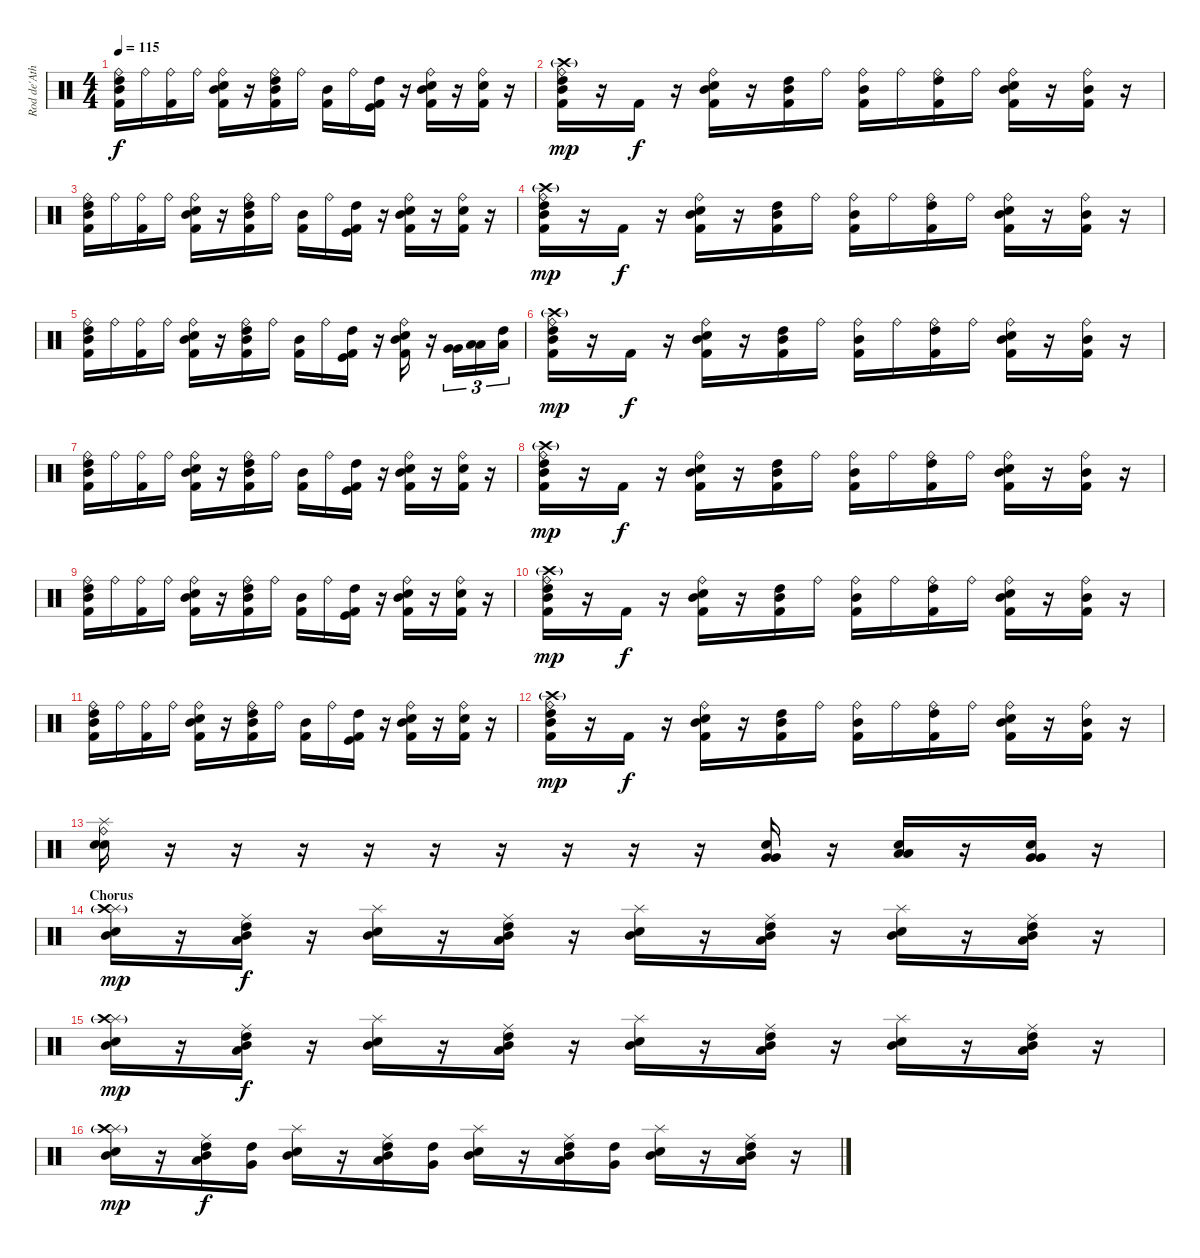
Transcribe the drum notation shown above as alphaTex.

\track ("Rod de'Ath" "Rod de'Ath") {instrument percussion}
\staff {score}
\articulation defaults
\ts (4 4)
\tempo 115
\clef neutral
\ks c
("Ride (bell)" "High Tom (hit)" "Mid Tom (hit)" "Kick (hit) 2").16{dy f} "Ride (bell)".16 ("Ride (bell)" "Kick (hit) 2").16 "Ride (bell)".16 ("Ride (bell)" "Snare (hit) 2" "Mid Tom (hit)" "Kick (hit) 2").16 r.16 ("Ride (bell)" "High Tom (hit)" "Mid Tom (hit)" "Kick (hit) 2").16 "Ride (bell)".16 ("Mid Tom (hit)" "Kick (hit) 2").16 "Ride (bell)".16 ("Kick (hit)" "High Tom (hit)" "Kick (hit) 2").16 r.16 ("Ride (bell)" "Snare (hit) 2" "Mid Tom (hit)" "Kick (hit) 2").16 r.16 ("Ride (bell)" "Electric Snare (hit)" "Kick (hit) 2").16 r.16 |
("Ride (bell)" "High Tom (hit)" "Mid Tom (hit)" "Kick (hit) 2" "Crash high (hit)"{g}).16{dy mp} r.16 "Kick (hit) 2".16{dy f} r.16 ("Ride (bell)" "Snare (hit) 2" "Mid Tom (hit)" "Kick (hit) 2").16 r.16 ("High Tom (hit)" "Mid Tom (hit)" "Kick (hit) 2").16 "Ride (bell)".16 ("Ride (bell)" "Mid Tom (hit)" "Kick (hit) 2").16 "Ride (bell)".16 ("Ride (bell)" "High Tom (hit)" "Kick (hit) 2").16 "Ride (bell)".16 ("Ride (bell)" "Snare (hit) 2" "Mid Tom (hit)" "Kick (hit) 2").16 r.16 ("Ride (bell)" "Mid Tom (hit)" "Kick (hit) 2").16 r.16 |
("Ride (bell)" "High Tom (hit)" "Mid Tom (hit)" "Kick (hit) 2").16 "Ride (bell)".16 ("Ride (bell)" "Kick (hit) 2").16 "Ride (bell)".16 ("Ride (bell)" "Snare (hit) 2" "Mid Tom (hit)" "Kick (hit) 2").16 r.16 ("Ride (bell)" "High Tom (hit)" "Mid Tom (hit)" "Kick (hit) 2").16 "Ride (bell)".16 ("Mid Tom (hit)" "Kick (hit) 2").16 "Ride (bell)".16 ("Kick (hit)" "High Tom (hit)" "Kick (hit) 2").16 r.16 ("Ride (bell)" "Snare (hit) 2" "Mid Tom (hit)" "Kick (hit) 2").16 r.16 ("Ride (bell)" "Electric Snare (hit)" "Kick (hit) 2").16 r.16 |
("Ride (bell)" "High Tom (hit)" "Mid Tom (hit)" "Kick (hit) 2" "Crash high (hit)"{g}).16{dy mp} r.16 "Kick (hit) 2".16{dy f} r.16 ("Ride (bell)" "Snare (hit) 2" "Mid Tom (hit)" "Kick (hit) 2").16 r.16 ("High Tom (hit)" "Mid Tom (hit)" "Kick (hit) 2").16 "Ride (bell)".16 ("Ride (bell)" "Mid Tom (hit)" "Kick (hit) 2").16 "Ride (bell)".16 ("Ride (bell)" "High Tom (hit)" "Kick (hit) 2").16 "Ride (bell)".16 ("Ride (bell)" "Snare (hit) 2" "Mid Tom (hit)" "Kick (hit) 2").16 r.16 ("Ride (bell)" "Mid Tom (hit)" "Kick (hit) 2").16 r.16 |
("Ride (bell)" "High Tom (hit)" "Mid Tom (hit)" "Kick (hit) 2").16 "Ride (bell)".16 ("Ride (bell)" "Kick (hit) 2").16 "Ride (bell)".16 ("Ride (bell)" "Snare (hit) 2" "Mid Tom (hit)" "Kick (hit) 2").16 r.16 ("Ride (bell)" "High Tom (hit)" "Mid Tom (hit)" "Kick (hit) 2").16 "Ride (bell)".16 ("Mid Tom (hit)" "Kick (hit) 2").16 "Ride (bell)".16 ("Kick (hit)" "High Tom (hit)" "Kick (hit) 2").16 r.16 ("Ride (bell)" "Snare (hit) 2" "Mid Tom (hit)" "Kick (hit) 2").16 r.16 ("Very Low Tom (hit)" "Very Low Tom (hit)").16{tu (3 2)} ("Low Tom (hit)" "Low Tom (hit)").16{tu (3 2)} ("Low Tom (hit)" "High Tom (hit)").16{tu (3 2)} |
("Ride (bell)" "High Tom (hit)" "Mid Tom (hit)" "Kick (hit) 2" "Crash high (hit)"{g}).16{dy mp} r.16 "Kick (hit) 2".16{dy f} r.16 ("Ride (bell)" "Snare (hit) 2" "Mid Tom (hit)" "Kick (hit) 2").16 r.16 ("High Tom (hit)" "Mid Tom (hit)" "Kick (hit) 2").16 "Ride (bell)".16 ("Ride (bell)" "Mid Tom (hit)" "Kick (hit) 2").16 "Ride (bell)".16 ("Ride (bell)" "High Tom (hit)" "Kick (hit) 2").16 "Ride (bell)".16 ("Ride (bell)" "Snare (hit) 2" "Mid Tom (hit)" "Kick (hit) 2").16 r.16 ("Ride (bell)" "Mid Tom (hit)" "Kick (hit) 2").16 r.16 |
("Ride (bell)" "High Tom (hit)" "Mid Tom (hit)" "Kick (hit) 2").16 "Ride (bell)".16 ("Ride (bell)" "Kick (hit) 2").16 "Ride (bell)".16 ("Ride (bell)" "Snare (hit) 2" "Mid Tom (hit)" "Kick (hit) 2").16 r.16 ("Ride (bell)" "High Tom (hit)" "Mid Tom (hit)" "Kick (hit) 2").16 "Ride (bell)".16 ("Mid Tom (hit)" "Kick (hit) 2").16 "Ride (bell)".16 ("Kick (hit)" "High Tom (hit)" "Kick (hit) 2").16 r.16 ("Ride (bell)" "Snare (hit) 2" "Mid Tom (hit)" "Kick (hit) 2").16 r.16 ("Ride (bell)" "Electric Snare (hit)" "Kick (hit) 2").16 r.16 |
("Ride (bell)" "High Tom (hit)" "Mid Tom (hit)" "Kick (hit) 2" "Crash high (hit)"{g}).16{dy mp} r.16 "Kick (hit) 2".16{dy f} r.16 ("Ride (bell)" "Snare (hit) 2" "Mid Tom (hit)" "Kick (hit) 2").16 r.16 ("High Tom (hit)" "Mid Tom (hit)" "Kick (hit) 2").16 "Ride (bell)".16 ("Ride (bell)" "Mid Tom (hit)" "Kick (hit) 2").16 "Ride (bell)".16 ("Ride (bell)" "High Tom (hit)" "Kick (hit) 2").16 "Ride (bell)".16 ("Ride (bell)" "Snare (hit) 2" "Mid Tom (hit)" "Kick (hit) 2").16 r.16 ("Ride (bell)" "Mid Tom (hit)" "Kick (hit) 2").16 r.16 |
("Ride (bell)" "High Tom (hit)" "Mid Tom (hit)" "Kick (hit) 2").16 "Ride (bell)".16 ("Ride (bell)" "Kick (hit) 2").16 "Ride (bell)".16 ("Ride (bell)" "Snare (hit) 2" "Mid Tom (hit)" "Kick (hit) 2").16 r.16 ("Ride (bell)" "High Tom (hit)" "Mid Tom (hit)" "Kick (hit) 2").16 "Ride (bell)".16 ("Mid Tom (hit)" "Kick (hit) 2").16 "Ride (bell)".16 ("Kick (hit)" "High Tom (hit)" "Kick (hit) 2").16 r.16 ("Ride (bell)" "Snare (hit) 2" "Mid Tom (hit)" "Kick (hit) 2").16 r.16 ("Ride (bell)" "Electric Snare (hit)" "Kick (hit) 2").16 r.16 |
("Ride (bell)" "High Tom (hit)" "Mid Tom (hit)" "Kick (hit) 2" "Crash high (hit)"{g}).16{dy mp} r.16 "Kick (hit) 2".16{dy f} r.16 ("Ride (bell)" "Snare (hit) 2" "Mid Tom (hit)" "Kick (hit) 2").16 r.16 ("High Tom (hit)" "Mid Tom (hit)" "Kick (hit) 2").16 "Ride (bell)".16 ("Ride (bell)" "Mid Tom (hit)" "Kick (hit) 2").16 "Ride (bell)".16 ("Ride (bell)" "High Tom (hit)" "Kick (hit) 2").16 "Ride (bell)".16 ("Ride (bell)" "Snare (hit) 2" "Mid Tom (hit)" "Kick (hit) 2").16 r.16 ("Ride (bell)" "Mid Tom (hit)" "Kick (hit) 2").16 r.16 |
("Ride (bell)" "High Tom (hit)" "Mid Tom (hit)" "Kick (hit) 2").16 "Ride (bell)".16 ("Ride (bell)" "Kick (hit) 2").16 "Ride (bell)".16 ("Ride (bell)" "Snare (hit) 2" "Mid Tom (hit)" "Kick (hit) 2").16 r.16 ("Ride (bell)" "High Tom (hit)" "Mid Tom (hit)" "Kick (hit) 2").16 "Ride (bell)".16 ("Mid Tom (hit)" "Kick (hit) 2").16 "Ride (bell)".16 ("Kick (hit)" "High Tom (hit)" "Kick (hit) 2").16 r.16 ("Ride (bell)" "Snare (hit) 2" "Mid Tom (hit)" "Kick (hit) 2").16 r.16 ("Ride (bell)" "Electric Snare (hit)" "Kick (hit) 2").16 r.16 |
("Ride (bell)" "High Tom (hit)" "Mid Tom (hit)" "Kick (hit) 2" "Crash high (hit)"{g}).16{dy mp} r.16 "Kick (hit) 2".16{dy f} r.16 ("Ride (bell)" "Snare (hit) 2" "Mid Tom (hit)" "Kick (hit) 2").16 r.16 ("High Tom (hit)" "Mid Tom (hit)" "Kick (hit) 2").16 "Ride (bell)".16 ("Ride (bell)" "Mid Tom (hit)" "Kick (hit) 2").16 "Ride (bell)".16 ("Ride (bell)" "High Tom (hit)" "Kick (hit) 2").16 "Ride (bell)".16 ("Ride (bell)" "Snare (hit) 2" "Mid Tom (hit)" "Kick (hit) 2").16 r.16 ("Ride (bell)" "Mid Tom (hit)" "Kick (hit) 2").16 r.16 |
("Ride (bell)" "Electric Snare (hit)" "Snare (hit) 2" "Splash (hit)").16 r.16 r.16 r.16 r.16 r.16 r.16 r.16 r.16 r.16 ("Snare (hit) 2" "Very Low Tom (hit)" "Very Low Tom (hit)").16 r.16 ("Electric Snare (hit)" "Low Tom (hit)" "Low Tom (hit)").16 r.16 ("Snare (hit) 2" "Very Low Tom (hit)" "Very Low Tom (hit)").16 r.16 |
\section ("" "Chorus")
("Splash (hit)" "Snare (hit) 2" "Crash high (hit)"{g} "Mid Tom (hit)").16{dy mp} r.16 ("Ride (middle)" "Low Tom (hit)" "High Tom (hit)" "Mid Tom (hit)").16{dy f} r.16 ("Splash (hit)" "Snare (hit) 2" "Mid Tom (hit)").16 r.16 ("Ride (middle)" "Low Tom (hit)" "High Tom (hit)" "Mid Tom (hit)").16 r.16 ("Splash (hit)" "Snare (hit) 2" "Mid Tom (hit)").16 r.16 ("Ride (middle)" "Low Tom (hit)" "High Tom (hit)" "Mid Tom (hit)").16 r.16 ("Splash (hit)" "Snare (hit) 2" "Mid Tom (hit)").16 r.16 ("Ride (middle)" "Low Tom (hit)" "High Tom (hit)" "Mid Tom (hit)").16 r.16 |
("Splash (hit)" "Snare (hit) 2" "Crash high (hit)"{g} "Mid Tom (hit)").16{dy mp} r.16 ("Ride (middle)" "Low Tom (hit)" "High Tom (hit)" "Mid Tom (hit)").16{dy f} r.16 ("Splash (hit)" "Snare (hit) 2" "Mid Tom (hit)").16 r.16 ("Ride (middle)" "Low Tom (hit)" "High Tom (hit)" "Mid Tom (hit)").16 r.16 ("Splash (hit)" "Snare (hit) 2" "Mid Tom (hit)").16 r.16 ("Ride (middle)" "Low Tom (hit)" "High Tom (hit)" "Mid Tom (hit)").16 r.16 ("Splash (hit)" "Snare (hit) 2" "Mid Tom (hit)").16 r.16 ("Ride (middle)" "Low Tom (hit)" "High Tom (hit)" "Mid Tom (hit)").16 r.16 |
("Splash (hit)" "Snare (hit) 2" "Crash high (hit)"{g} "Mid Tom (hit)").16{dy mp} r.16 ("Ride (middle)" "Low Tom (hit)" "High Tom (hit)" "Mid Tom (hit)").16{dy f} ("Very Low Tom (hit)" "High Tom (hit)").16 ("Splash (hit)" "Snare (hit) 2" "Mid Tom (hit)").16 r.16 ("Ride (middle)" "Low Tom (hit)" "High Tom (hit)" "Mid Tom (hit)").16 ("Very Low Tom (hit)" "High Tom (hit)").16 ("Splash (hit)" "Snare (hit) 2" "Mid Tom (hit)").16 r.16 ("Ride (middle)" "Low Tom (hit)" "High Tom (hit)" "Mid Tom (hit)").16 ("Very Low Tom (hit)" "High Tom (hit)").16 ("Splash (hit)" "Snare (hit) 2" "Mid Tom (hit)").16 r.16 ("Ride (middle)" "Low Tom (hit)" "High Tom (hit)" "Mid Tom (hit)").16 r.16
